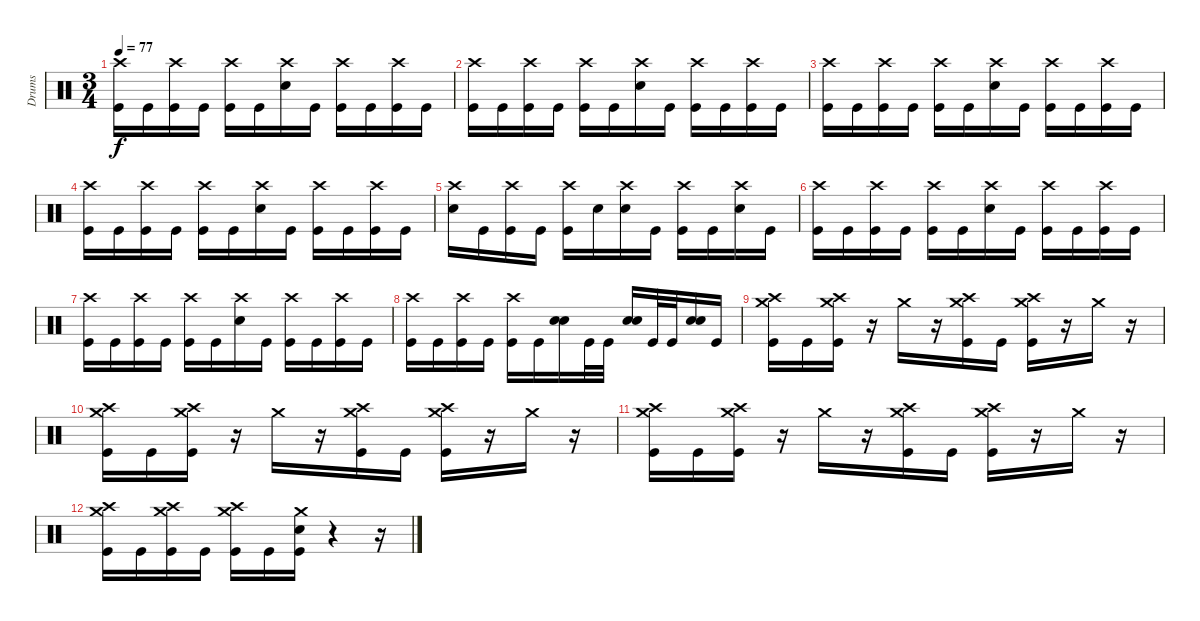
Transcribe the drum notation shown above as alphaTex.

\track ("Drums" "Drums") {instrument percussion}
\staff {score}
\articulation defaults
\ts (3 4)
\tempo 77
\clef neutral
\ks c
("Crash high (hit)" "Kick (hit)").16{dy f} "Kick (hit)".16 ("Crash high (hit)" "Kick (hit)").16 "Kick (hit)".16 ("Crash high (hit)" "Kick (hit)").16 "Kick (hit)".16 ("Crash high (hit)" "Snare (hit) 2").16 "Kick (hit)".16 ("Crash high (hit)" "Kick (hit)").16 "Kick (hit)".16 ("Crash high (hit)" "Kick (hit)").16 "Kick (hit)".16 |
("Crash high (hit)" "Kick (hit)").16 "Kick (hit)".16 ("Crash high (hit)" "Kick (hit)").16 "Kick (hit)".16 ("Crash high (hit)" "Kick (hit)").16 "Kick (hit)".16 ("Crash high (hit)" "Snare (hit) 2").16 "Kick (hit)".16 ("Crash high (hit)" "Kick (hit)").16 "Kick (hit)".16 ("Crash high (hit)" "Kick (hit)").16 "Kick (hit)".16 |
("Crash high (hit)" "Kick (hit)").16 "Kick (hit)".16 ("Crash high (hit)" "Kick (hit)").16 "Kick (hit)".16 ("Crash high (hit)" "Kick (hit)").16 "Kick (hit)".16 ("Crash high (hit)" "Snare (hit) 2").16 "Kick (hit)".16 ("Crash high (hit)" "Kick (hit)").16 "Kick (hit)".16 ("Crash high (hit)" "Kick (hit)").16 "Kick (hit)".16 |
("Crash high (hit)" "Kick (hit)").16 "Kick (hit)".16 ("Crash high (hit)" "Kick (hit)").16 "Kick (hit)".16 ("Crash high (hit)" "Kick (hit)").16 "Kick (hit)".16 ("Crash high (hit)" "Snare (hit) 2").16 "Kick (hit)".16 ("Crash high (hit)" "Kick (hit)").16 "Kick (hit)".16 ("Crash high (hit)" "Kick (hit)").16 "Kick (hit)".16 |
("Crash high (hit)" "Snare (hit) 2").16 "Kick (hit)".16 ("Crash high (hit)" "Kick (hit)").16 "Kick (hit)".16 ("Crash high (hit)" "Kick (hit)").16 "Snare (hit) 2".16 ("Crash high (hit)" "Snare (hit) 2").16 "Kick (hit)".16 ("Crash high (hit)" "Kick (hit)").16 "Kick (hit)".16 ("Crash high (hit)" "Snare (hit) 2").16 "Kick (hit)".16 |
("Crash high (hit)" "Kick (hit)").16 "Kick (hit)".16 ("Crash high (hit)" "Kick (hit)").16 "Kick (hit)".16 ("Crash high (hit)" "Kick (hit)").16 "Kick (hit)".16 ("Crash high (hit)" "Snare (hit) 2").16 "Kick (hit)".16 ("Crash high (hit)" "Kick (hit)").16 "Kick (hit)".16 ("Crash high (hit)" "Kick (hit)").16 "Kick (hit)".16 |
("Crash high (hit)" "Kick (hit)").16 "Kick (hit)".16 ("Crash high (hit)" "Kick (hit)").16 "Kick (hit)".16 ("Crash high (hit)" "Kick (hit)").16 "Kick (hit)".16 ("Crash high (hit)" "Snare (hit) 2").16 "Kick (hit)".16 ("Crash high (hit)" "Kick (hit)").16 "Kick (hit)".16 ("Crash high (hit)" "Kick (hit)").16 "Kick (hit)".16 |
("Crash high (hit)" "Kick (hit)").16 "Kick (hit)".16 ("Crash high (hit)" "Kick (hit)").16 "Kick (hit)".16 ("Crash high (hit)" "Kick (hit)").16 "Kick (hit)".16 ("Snare (hit) 2" "Snare (hit) 2").16 "Kick (hit)".32 "Kick (hit)".32 ("Snare (hit) 2" "Snare (hit) 2").16 "Kick (hit)".32 "Kick (hit)".32 ("Snare (hit) 2" "Snare (hit) 2").16 "Kick (hit)".16 |
("Crash medium (hit)" "Crash high (hit)" "Kick (hit)").16 "Kick (hit)".16 ("Crash medium (hit)" "Crash high (hit)" "Kick (hit)").16 r.16 "Crash medium (hit)".16 r.16 ("Crash medium (hit)" "Crash high (hit)" "Kick (hit)").16 "Kick (hit)".16 ("Crash medium (hit)" "Crash high (hit)" "Kick (hit)").16 r.16 "Crash medium (hit)".16 r.16 |
("Crash medium (hit)" "Crash high (hit)" "Kick (hit)").16 "Kick (hit)".16 ("Crash medium (hit)" "Crash high (hit)" "Kick (hit)").16 r.16 "Crash medium (hit)".16 r.16 ("Crash medium (hit)" "Crash high (hit)" "Kick (hit)").16 "Kick (hit)".16 ("Crash medium (hit)" "Crash high (hit)" "Kick (hit)").16 r.16 "Crash medium (hit)".16 r.16 |
("Crash medium (hit)" "Crash high (hit)" "Kick (hit)").16 "Kick (hit)".16 ("Crash medium (hit)" "Crash high (hit)" "Kick (hit)").16 r.16 "Crash medium (hit)".16 r.16 ("Crash medium (hit)" "Crash high (hit)" "Kick (hit)").16 "Kick (hit)".16 ("Crash medium (hit)" "Crash high (hit)" "Kick (hit)").16 r.16 "Crash medium (hit)".16 r.16 |
("Crash medium (hit)" "Crash high (hit)" "Kick (hit)").16 "Kick (hit)".16 ("Crash medium (hit)" "Crash high (hit)" "Kick (hit)").16 "Kick (hit)".16 ("Crash medium (hit)" "Crash high (hit)" "Kick (hit)").16 "Kick (hit)".16 ("Crash medium (hit)" "Snare (hit) 2" "Kick (hit)").16 r.4 r.16
